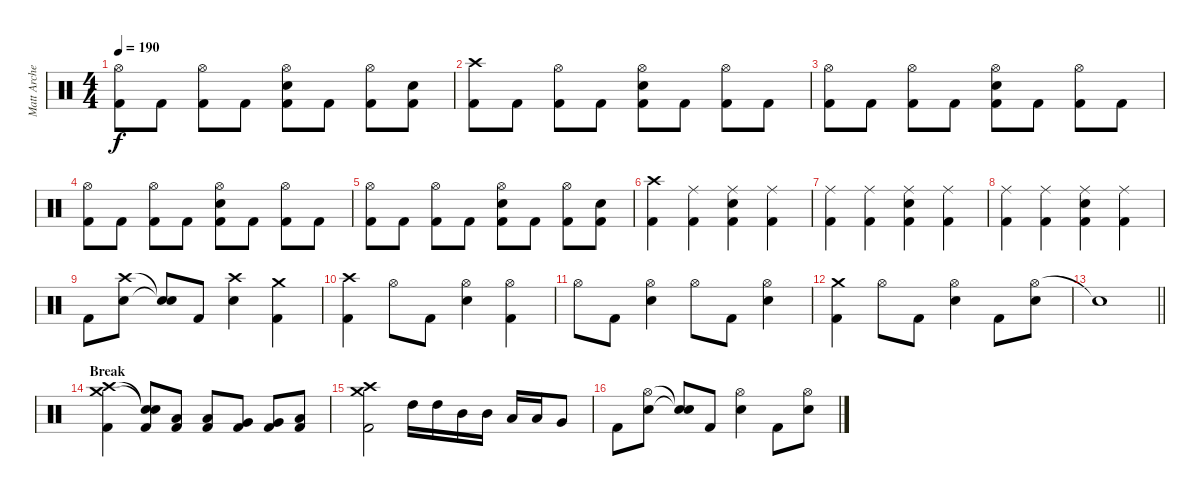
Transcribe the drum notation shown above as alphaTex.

\track ("Matt Archer" "Matt Arche") {instrument percussion}
\staff {score}
\articulation defaults
\ts (4 4)
\tempo 190
\clef neutral
\ks c
("Hi-Hat (open)" "Kick (hit) 2").8{dy f} "Kick (hit) 2".8 ("Hi-Hat (open)" "Kick (hit) 2").8 "Kick (hit) 2".8 ("Hi-Hat (open)" "Snare (hit) 2" "Kick (hit) 2").8 "Kick (hit) 2".8 ("Hi-Hat (open)" "Kick (hit) 2").8 ("Snare (hit) 2" "Kick (hit) 2").8 |
("Crash high (hit)" "Kick (hit) 2").8 "Kick (hit) 2".8 ("Hi-Hat (open)" "Kick (hit) 2").8 "Kick (hit) 2".8 ("Hi-Hat (open)" "Snare (hit) 2" "Kick (hit) 2").8 "Kick (hit) 2".8 ("Hi-Hat (open)" "Kick (hit) 2").8 "Kick (hit) 2".8 |
("Hi-Hat (open)" "Kick (hit) 2").8 "Kick (hit) 2".8 ("Hi-Hat (open)" "Kick (hit) 2").8 "Kick (hit) 2".8 ("Hi-Hat (open)" "Snare (hit) 2" "Kick (hit) 2").8 "Kick (hit) 2".8 ("Hi-Hat (open)" "Kick (hit) 2").8 "Kick (hit) 2".8 |
("Hi-Hat (open)" "Kick (hit) 2").8 "Kick (hit) 2".8 ("Hi-Hat (open)" "Kick (hit) 2").8 "Kick (hit) 2".8 ("Hi-Hat (open)" "Snare (hit) 2" "Kick (hit) 2").8 "Kick (hit) 2".8 ("Hi-Hat (open)" "Kick (hit) 2").8 "Kick (hit) 2".8 |
("Hi-Hat (open)" "Kick (hit) 2").8 "Kick (hit) 2".8 ("Hi-Hat (open)" "Kick (hit) 2").8 "Kick (hit) 2".8 ("Hi-Hat (open)" "Snare (hit) 2" "Kick (hit) 2").8 "Kick (hit) 2".8 ("Hi-Hat (open)" "Kick (hit) 2").8 ("Snare (hit) 2" "Kick (hit) 2").8 |
("Crash high (hit)" "Kick (hit) 2").4 ("Ride (middle)" "Kick (hit) 2").4 ("Ride (middle)" "Snare (hit) 2" "Kick (hit) 2").4 ("Ride (middle)" "Kick (hit) 2").4 |
("Ride (middle)" "Kick (hit) 2").4 ("Ride (middle)" "Kick (hit) 2").4 ("Ride (middle)" "Snare (hit) 2" "Kick (hit) 2").4 ("Ride (middle)" "Kick (hit) 2").4 |
("Ride (middle)" "Kick (hit) 2").4 ("Ride (middle)" "Kick (hit) 2").4 ("Ride (middle)" "Snare (hit) 2" "Kick (hit) 2").4 ("Ride (middle)" "Kick (hit) 2").4 |
"Kick (hit) 2".8 ("Crash high (hit)" "Snare (hit) 2").8 ("Snare (hit)"{t} "Snare (hit)"{t}).8 "Kick (hit) 2".8 ("Crash high (hit)" "Snare (hit) 2").4 ("Crash medium (hit)" "Kick (hit) 2").4 |
("Crash high (hit)" "Kick (hit) 2").4 "Hi-Hat (open)".8 "Kick (hit) 2".8 ("Hi-Hat (open)" "Snare (hit) 2").4 ("Hi-Hat (open)" "Kick (hit) 2").4 |
"Hi-Hat (open)".8 "Kick (hit) 2".8 ("Hi-Hat (open)" "Snare (hit) 2").4 "Hi-Hat (open)".8 "Kick (hit) 2".8 ("Hi-Hat (open)" "Snare (hit) 2").4 |
("Crash medium (hit)" "Kick (hit) 2").4 "Hi-Hat (open)".8 "Kick (hit) 2".8 ("Hi-Hat (open)" "Snare (hit) 2").4 "Kick (hit) 2".8 ("Hi-Hat (open)" "Snare (hit) 2").8 |
\barLineRight lightlight "Snare (hit)"{t}.1
|
\section ("" "Break")
("Crash high (hit)" "Crash medium (hit)" "Kick (hit) 2").4 ("Snare (hit)"{t} "Snare (hit)"{t} "Kick (hit) 2").8 ("Low Tom (hit)" "Kick (hit) 2").8 ("Low Tom (hit)" "Kick (hit) 2").8 ("Very Low Tom (hit)" "Kick (hit) 2").8 ("Very Low Tom (hit)" "Kick (hit) 2").8 ("Low Floor Tom (hit)" "Kick (hit) 2").8 |
("Crash high (hit)" "Crash medium (hit)" "Kick (hit) 2").2 "High Tom (hit)".16 "High Tom (hit)".16 "Mid Tom (hit)".16 "Mid Tom (hit)".16 "Low Tom (hit)".16 "Low Tom (hit)".16 "Very Low Tom (hit)".8 |
"Kick (hit) 2".8 ("Hi-Hat (open)" "Snare (hit) 2").8 ("Snare (hit)"{t} "Snare (hit)"{t}).8 "Kick (hit) 2".8 ("Hi-Hat (open)" "Snare (hit) 2").4 "Kick (hit) 2".8 ("Hi-Hat (open)" "Snare (hit) 2").8
